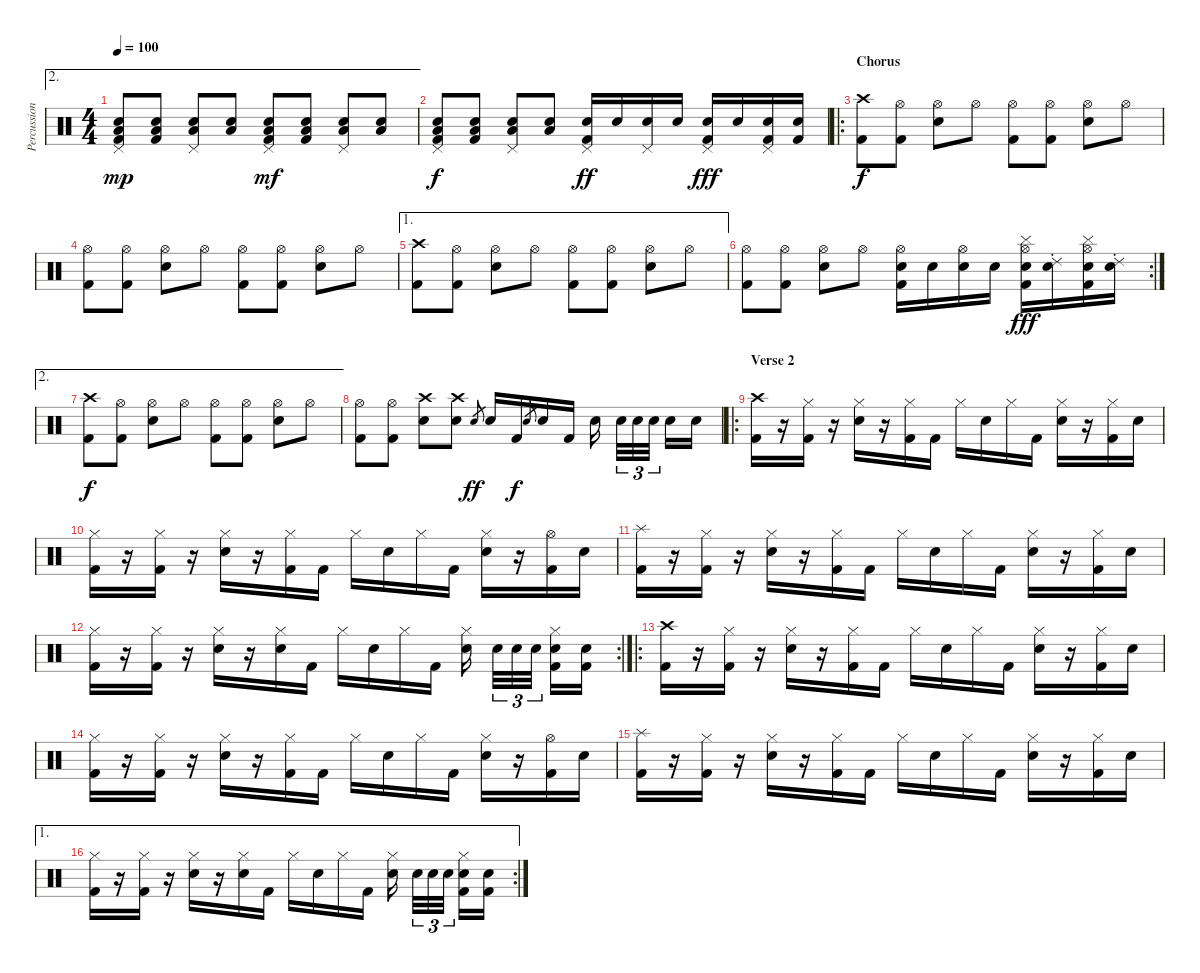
\track ("Percussion" "Percussion") {instrument percussion}
\staff {score}
\articulation defaults
\ae 2
\ts (4 4)
\tempo 100
\clef neutral
\ks c
("Pedal Hi-Hat (hit)" "Low Tom (hit)" "Electric Snare (hit)" "Kick (hit) 2").8{dy mp} ("Low Tom (hit)" "Electric Snare (hit)" "Kick (hit) 2").8 ("Pedal Hi-Hat (hit)" "Low Tom (hit)" "Electric Snare (hit)").8 ("Low Tom (hit)" "Electric Snare (hit)").8 ("Pedal Hi-Hat (hit)" "Low Tom (hit)" "Electric Snare (hit)" "Kick (hit) 2").8{dy mf} ("Low Tom (hit)" "Electric Snare (hit)" "Kick (hit) 2").8 ("Pedal Hi-Hat (hit)" "Low Tom (hit)" "Electric Snare (hit)").8 ("Low Tom (hit)" "Electric Snare (hit)").8 |
("Pedal Hi-Hat (hit)" "Low Tom (hit)" "Electric Snare (hit)" "Kick (hit) 2").8{dy f} ("Low Tom (hit)" "Electric Snare (hit)" "Kick (hit) 2").8 ("Pedal Hi-Hat (hit)" "Low Tom (hit)" "Electric Snare (hit)").8 ("Low Tom (hit)" "Electric Snare (hit)").8 ("Pedal Hi-Hat (hit)" "Electric Snare (hit)" "Kick (hit) 2").16{dy ff} "Electric Snare (hit)".16 ("Pedal Hi-Hat (hit)" "Electric Snare (hit)").16 "Electric Snare (hit)".16 ("Pedal Hi-Hat (hit)" "Electric Snare (hit)" "Kick (hit) 2").16{dy fff} "Electric Snare (hit)".16 ("Pedal Hi-Hat (hit)" "Electric Snare (hit)" "Kick (hit) 2").16 ("Electric Snare (hit)" "Kick (hit) 2").16 |
\ro
\section ("" "Chorus")
("Crash high (hit)" "Kick (hit) 2").8{dy f} ("Hi-Hat (open)" "Kick (hit) 2").8 ("Hi-Hat (open)" "Electric Snare (hit)").8 "Hi-Hat (open)".8 ("Hi-Hat (open)" "Kick (hit) 2").8 ("Hi-Hat (open)" "Kick (hit) 2").8 ("Hi-Hat (open)" "Electric Snare (hit)").8 "Hi-Hat (open)".8 |
("Hi-Hat (open)" "Kick (hit) 2").8 ("Hi-Hat (open)" "Kick (hit) 2").8 ("Hi-Hat (open)" "Electric Snare (hit)").8 "Hi-Hat (open)".8 ("Hi-Hat (open)" "Kick (hit) 2").8 ("Hi-Hat (open)" "Kick (hit) 2").8 ("Hi-Hat (open)" "Electric Snare (hit)").8 "Hi-Hat (open)".8 |
\ae 1
("Crash high (hit)" "Kick (hit) 2").8 ("Hi-Hat (open)" "Kick (hit) 2").8 ("Hi-Hat (open)" "Electric Snare (hit)").8 "Hi-Hat (open)".8 ("Hi-Hat (open)" "Kick (hit) 2").8 ("Hi-Hat (open)" "Kick (hit) 2").8 ("Hi-Hat (open)" "Electric Snare (hit)").8 "Hi-Hat (open)".8 |
\rc 2
("Hi-Hat (open)" "Kick (hit) 2").8 ("Hi-Hat (open)" "Kick (hit) 2").8 ("Hi-Hat (open)" "Electric Snare (hit)").8 "Hi-Hat (open)".8 ("Hi-Hat (open)" "Electric Snare (hit)" "Kick (hit) 2").16 "Electric Snare (hit)".16 ("Hi-Hat (open)" "Electric Snare (hit)").16 "Electric Snare (hit)".16 ("Hi-Hat (open)" "Electric Snare (hit)" "Kick (hit) 2" "Cymbal (hit)").16{dy fff} ("Electric Snare (hit)" "Ride (choke) 2").16 ("Hi-Hat (open)" "Electric Snare (hit)" "Kick (hit) 2" "Cymbal (hit)").16 ("Electric Snare (hit)" "Ride (choke) 2").16 |
\ae 2
("Crash high (hit)" "Kick (hit) 2").8{dy f} ("Hi-Hat (open)" "Kick (hit) 2").8 ("Hi-Hat (open)" "Electric Snare (hit)").8 "Hi-Hat (open)".8 ("Hi-Hat (open)" "Kick (hit) 2").8 ("Hi-Hat (open)" "Kick (hit) 2").8 ("Hi-Hat (open)" "Electric Snare (hit)").8 "Hi-Hat (open)".8 |
("Hi-Hat (open)" "Kick (hit) 2").8 ("Hi-Hat (open)" "Kick (hit) 2").8 ("Crash high (hit)" "Electric Snare (hit)").8 ("Crash high (hit)" "Electric Snare (hit)").8 "Electric Snare (hit)".8{gr dy ff} "Electric Snare (hit)".16 "Kick (hit) 2".16{dy f} "Electric Snare (hit)".8{gr} "Electric Snare (hit)".16 "Kick (hit) 2".16 "Electric Snare (hit)".16 "Electric Snare (hit)".32{tu (3 2)} "Electric Snare (hit)".32{tu (3 2)} "Electric Snare (hit)".32{tu (3 2)} "Electric Snare (hit)".16 "Electric Snare (hit)".16 |
\ro
\section ("" "Verse 2")
("Crash high (hit)" "Kick (hit) 2").16 r.16 ("Hi-Hat (closed)" "Kick (hit) 2").16 r.16 ("Hi-Hat (closed)" "Electric Snare (hit)").16 r.16 ("Hi-Hat (closed)" "Kick (hit) 2").16 "Kick (hit) 2".16 "Hi-Hat (closed)".16 "Electric Snare (hit)".16 "Hi-Hat (closed)".16 "Kick (hit) 2".16 ("Hi-Hat (closed)" "Electric Snare (hit)").16 r.16 ("Hi-Hat (closed)" "Kick (hit) 2").16 "Electric Snare (hit)".16 |
("Hi-Hat (closed)" "Kick (hit) 2").16 r.16 ("Hi-Hat (closed)" "Kick (hit) 2").16 r.16 ("Hi-Hat (closed)" "Electric Snare (hit)").16 r.16 ("Hi-Hat (closed)" "Kick (hit) 2").16 "Kick (hit) 2".16 "Hi-Hat (closed)".16 "Electric Snare (hit)".16 "Hi-Hat (closed)".16 "Kick (hit) 2".16 ("Hi-Hat (closed)" "Electric Snare (hit)").16 r.16 ("Hi-Hat (open)" "Kick (hit) 2").16 "Electric Snare (hit)".16 |
("Splash (hit)" "Kick (hit) 2").16 r.16 ("Hi-Hat (closed)" "Kick (hit) 2").16 r.16 ("Hi-Hat (closed)" "Electric Snare (hit)").16 r.16 ("Hi-Hat (closed)" "Kick (hit) 2").16 "Kick (hit) 2".16 "Hi-Hat (closed)".16 "Electric Snare (hit)".16 "Hi-Hat (closed)".16 "Kick (hit) 2".16 ("Hi-Hat (closed)" "Electric Snare (hit)").16 r.16 ("Hi-Hat (closed)" "Kick (hit) 2").16 "Electric Snare (hit)".16 |
\rc 2
("Hi-Hat (closed)" "Kick (hit) 2").16 r.16 ("Hi-Hat (closed)" "Kick (hit) 2").16 r.16 ("Hi-Hat (closed)" "Electric Snare (hit)").16 r.16 ("Hi-Hat (closed)" "Electric Snare (hit)").16 "Kick (hit) 2".16 "Hi-Hat (closed)".16 "Electric Snare (hit)".16 "Hi-Hat (closed)".16 "Kick (hit) 2".16 ("Hi-Hat (closed)" "Electric Snare (hit)").16 "Electric Snare (hit)".32{tu (3 2)} "Electric Snare (hit)".32{tu (3 2)} "Electric Snare (hit)".32{tu (3 2)} ("Hi-Hat (closed)" "Electric Snare (hit)" "Kick (hit) 2").16 ("Electric Snare (hit)" "Kick (hit) 2").16 |
\ro
("Crash high (hit)" "Kick (hit) 2").16 r.16 ("Hi-Hat (closed)" "Kick (hit) 2").16 r.16 ("Hi-Hat (closed)" "Electric Snare (hit)").16 r.16 ("Hi-Hat (closed)" "Kick (hit) 2").16 "Kick (hit) 2".16 "Hi-Hat (closed)".16 "Electric Snare (hit)".16 "Hi-Hat (closed)".16 "Kick (hit) 2".16 ("Hi-Hat (closed)" "Electric Snare (hit)").16 r.16 ("Hi-Hat (closed)" "Kick (hit) 2").16 "Electric Snare (hit)".16 |
("Hi-Hat (closed)" "Kick (hit) 2").16 r.16 ("Hi-Hat (closed)" "Kick (hit) 2").16 r.16 ("Hi-Hat (closed)" "Electric Snare (hit)").16 r.16 ("Hi-Hat (closed)" "Kick (hit) 2").16 "Kick (hit) 2".16 "Hi-Hat (closed)".16 "Electric Snare (hit)".16 "Hi-Hat (closed)".16 "Kick (hit) 2".16 ("Hi-Hat (closed)" "Electric Snare (hit)").16 r.16 ("Hi-Hat (open)" "Kick (hit) 2").16 "Electric Snare (hit)".16 |
("Splash (hit)" "Kick (hit) 2").16 r.16 ("Hi-Hat (closed)" "Kick (hit) 2").16 r.16 ("Hi-Hat (closed)" "Electric Snare (hit)").16 r.16 ("Hi-Hat (closed)" "Kick (hit) 2").16 "Kick (hit) 2".16 "Hi-Hat (closed)".16 "Electric Snare (hit)".16 "Hi-Hat (closed)".16 "Kick (hit) 2".16 ("Hi-Hat (closed)" "Electric Snare (hit)").16 r.16 ("Hi-Hat (closed)" "Kick (hit) 2").16 "Electric Snare (hit)".16 |
\ae 1
\rc 2
("Hi-Hat (closed)" "Kick (hit) 2").16 r.16 ("Hi-Hat (closed)" "Kick (hit) 2").16 r.16 ("Hi-Hat (closed)" "Electric Snare (hit)").16 r.16 ("Hi-Hat (closed)" "Electric Snare (hit)").16 "Kick (hit) 2".16 "Hi-Hat (closed)".16 "Electric Snare (hit)".16 "Hi-Hat (closed)".16 "Kick (hit) 2".16 ("Hi-Hat (closed)" "Electric Snare (hit)").16 "Electric Snare (hit)".32{tu (3 2)} "Electric Snare (hit)".32{tu (3 2)} "Electric Snare (hit)".32{tu (3 2)} ("Hi-Hat (closed)" "Electric Snare (hit)" "Kick (hit) 2").16 ("Electric Snare (hit)" "Kick (hit) 2").16
